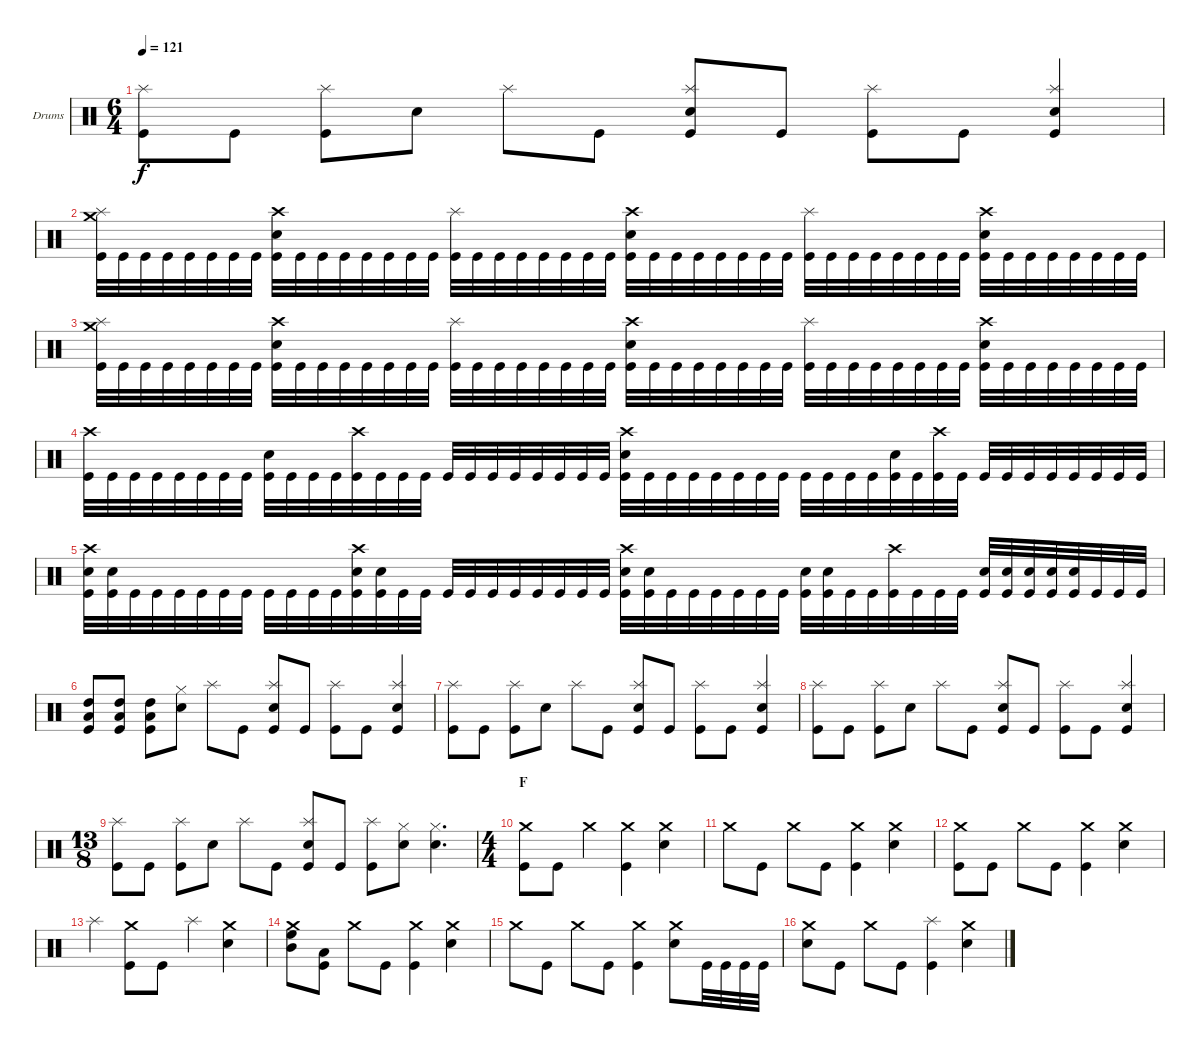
\bracketExtendMode groupsimilarinstruments
\firstSystemTrackNameOrientation horizontal
\otherSystemsTrackNameOrientation horizontal
\track ("Drumkit" "Drums") {instrument percussion}
\staff {score}
\articulation defaults
\ts (6 4)
\tempo 121
\clef neutral
\ks c
("Kick (hit)" "Splash (hit)").8{dy f} "Kick (hit)".8 ("Kick (hit)" "Splash (hit)").8 "Snare (hit) 2".8 "Splash (hit)".8 "Kick (hit)".8 ("Kick (hit)" "Snare (hit) 2" "Splash (hit)").8 "Kick (hit)".8 ("Splash (hit)" "Kick (hit)").8 "Kick (hit)".8 ("Kick (hit)" "Snare (hit) 2" "Splash (hit)").4 |
("Kick (hit)" "Splash (hit)" "Crash medium (hit)").32 "Kick (hit)".32 "Kick (hit)".32 "Kick (hit)".32 "Kick (hit)".32 "Kick (hit)".32 "Kick (hit)".32 "Kick (hit)".32 ("Kick (hit)" "Snare (hit) 2" "Crash high (hit)").32 "Kick (hit)".32 "Kick (hit)".32 "Kick (hit)".32 "Kick (hit)".32 "Kick (hit)".32 "Kick (hit)".32 "Kick (hit)".32 ("Kick (hit)" "Splash (hit)").32 "Kick (hit)".32 "Kick (hit)".32 "Kick (hit)".32 "Kick (hit)".32 "Kick (hit)".32 "Kick (hit)".32 "Kick (hit)".32 ("Kick (hit)" "Snare (hit) 2" "Crash high (hit)").32 "Kick (hit)".32 "Kick (hit)".32 "Kick (hit)".32 "Kick (hit)".32 "Kick (hit)".32 "Kick (hit)".32 "Kick (hit)".32 ("Kick (hit)" "Splash (hit)").32 "Kick (hit)".32 "Kick (hit)".32 "Kick (hit)".32 "Kick (hit)".32 "Kick (hit)".32 "Kick (hit)".32 "Kick (hit)".32 ("Kick (hit)" "Snare (hit) 2" "Crash high (hit)").32 "Kick (hit)".32 "Kick (hit)".32 "Kick (hit)".32 "Kick (hit)".32 "Kick (hit)".32 "Kick (hit)".32 "Kick (hit)".32 |
("Kick (hit)" "Splash (hit)" "Crash medium (hit)").32 "Kick (hit)".32 "Kick (hit)".32 "Kick (hit)".32 "Kick (hit)".32 "Kick (hit)".32 "Kick (hit)".32 "Kick (hit)".32 ("Kick (hit)" "Snare (hit) 2" "Crash high (hit)").32 "Kick (hit)".32 "Kick (hit)".32 "Kick (hit)".32 "Kick (hit)".32 "Kick (hit)".32 "Kick (hit)".32 "Kick (hit)".32 ("Kick (hit)" "Splash (hit)").32 "Kick (hit)".32 "Kick (hit)".32 "Kick (hit)".32 "Kick (hit)".32 "Kick (hit)".32 "Kick (hit)".32 "Kick (hit)".32 ("Kick (hit)" "Snare (hit) 2" "Crash high (hit)").32 "Kick (hit)".32 "Kick (hit)".32 "Kick (hit)".32 "Kick (hit)".32 "Kick (hit)".32 "Kick (hit)".32 "Kick (hit)".32 ("Kick (hit)" "Splash (hit)").32 "Kick (hit)".32 "Kick (hit)".32 "Kick (hit)".32 "Kick (hit)".32 "Kick (hit)".32 "Kick (hit)".32 "Kick (hit)".32 ("Kick (hit)" "Snare (hit) 2" "Crash high (hit)").32 "Kick (hit)".32 "Kick (hit)".32 "Kick (hit)".32 "Kick (hit)".32 "Kick (hit)".32 "Kick (hit)".32 "Kick (hit)".32 |
("Kick (hit)" "Crash high (hit)").32 "Kick (hit)".32 "Kick (hit)".32 "Kick (hit)".32 "Kick (hit)".32 "Kick (hit)".32 "Kick (hit)".32 "Kick (hit)".32 ("Kick (hit)" "Snare (hit) 2").32 "Kick (hit)".32 "Kick (hit)".32 "Kick (hit)".32 ("Kick (hit)" "Crash high (hit)").32 "Kick (hit)".32 "Kick (hit)".32 "Kick (hit)".32 "Kick (hit)".32 "Kick (hit)".32 "Kick (hit)".32 "Kick (hit)".32 "Kick (hit)".32 "Kick (hit)".32 "Kick (hit)".32 "Kick (hit)".32 ("Kick (hit)" "Crash high (hit)" "Snare (hit) 2").32 "Kick (hit)".32 "Kick (hit)".32 "Kick (hit)".32 "Kick (hit)".32 "Kick (hit)".32 "Kick (hit)".32 "Kick (hit)".32 "Kick (hit)".32 "Kick (hit)".32 "Kick (hit)".32 "Kick (hit)".32 ("Kick (hit)" "Snare (hit) 2").32 "Kick (hit)".32 ("Kick (hit)" "Crash high (hit)").32 "Kick (hit)".32 "Kick (hit)".32 "Kick (hit)".32 "Kick (hit)".32 "Kick (hit)".32 "Kick (hit)".32 "Kick (hit)".32 "Kick (hit)".32 "Kick (hit)".32 |
("Kick (hit)" "Crash high (hit)" "Snare (hit) 2").32 ("Kick (hit)" "Snare (hit) 2").32 "Kick (hit)".32 "Kick (hit)".32 "Kick (hit)".32 "Kick (hit)".32 "Kick (hit)".32 "Kick (hit)".32 "Kick (hit)".32 "Kick (hit)".32 "Kick (hit)".32 "Kick (hit)".32 ("Kick (hit)" "Crash high (hit)" "Snare (hit) 2").32 ("Kick (hit)" "Snare (hit) 2").32 "Kick (hit)".32 "Kick (hit)".32 "Kick (hit)".32 "Kick (hit)".32 "Kick (hit)".32 "Kick (hit)".32 "Kick (hit)".32 "Kick (hit)".32 "Kick (hit)".32 "Kick (hit)".32 ("Kick (hit)" "Crash high (hit)" "Snare (hit) 2").32 ("Kick (hit)" "Snare (hit) 2").32 "Kick (hit)".32 "Kick (hit)".32 "Kick (hit)".32 "Kick (hit)".32 "Kick (hit)".32 "Kick (hit)".32 ("Kick (hit)" "Snare (hit) 2").32 ("Kick (hit)" "Snare (hit) 2").32 "Kick (hit)".32 "Kick (hit)".32 ("Kick (hit)" "Crash high (hit)").32 "Kick (hit)".32 "Kick (hit)".32 "Kick (hit)".32 ("Kick (hit)" "Snare (hit) 2").32 ("Kick (hit)" "Snare (hit) 2").32 ("Kick (hit)" "Snare (hit) 2").32 ("Kick (hit)" "Snare (hit) 2").32 ("Kick (hit)" "Snare (hit) 2").32 "Kick (hit)".32 "Kick (hit)".32 "Kick (hit)".32 |
("Kick (hit)" "Low Tom (hit)" "High Tom (hit)").8 ("Kick (hit)" "Low Tom (hit)" "High Tom (hit)").8 ("Kick (hit)" "Low Tom (hit)" "High Tom (hit)").8 ("Snare (hit) 2" "Hi-Hat (closed)").8 "Splash (hit)".8 "Kick (hit)".8 ("Kick (hit)" "Snare (hit) 2" "Splash (hit)").8 "Kick (hit)".8 ("Splash (hit)" "Kick (hit)").8 "Kick (hit)".8 ("Kick (hit)" "Snare (hit) 2" "Splash (hit)").4 |
("Kick (hit)" "Splash (hit)").8 "Kick (hit)".8 ("Kick (hit)" "Splash (hit)").8 "Snare (hit) 2".8 "Splash (hit)".8 "Kick (hit)".8 ("Kick (hit)" "Snare (hit) 2" "Splash (hit)").8 "Kick (hit)".8 ("Splash (hit)" "Kick (hit)").8 "Kick (hit)".8 ("Kick (hit)" "Snare (hit) 2" "Splash (hit)").4 |
("Kick (hit)" "Splash (hit)").8 "Kick (hit)".8 ("Kick (hit)" "Splash (hit)").8 "Snare (hit) 2".8 "Splash (hit)".8 "Kick (hit)".8 ("Kick (hit)" "Snare (hit) 2" "Splash (hit)").8 "Kick (hit)".8 ("Splash (hit)" "Kick (hit)").8 "Kick (hit)".8 ("Kick (hit)" "Snare (hit) 2" "Splash (hit)").4 |
\ts (13 8)
("Kick (hit)" "Splash (hit)").8 "Kick (hit)".8 ("Kick (hit)" "Splash (hit)").8 "Snare (hit) 2".8 "Splash (hit)".8 "Kick (hit)".8 ("Kick (hit)" "Snare (hit) 2" "Splash (hit)").8 "Kick (hit)".8 ("Splash (hit)" "Kick (hit)").8 ("Snare (hit) 2" "Hi-Hat (closed)").8 ("Snare (hit) 2" "Hi-Hat (closed)").4{d} |
\ts (4 4)
\section ("" "F")
("Kick (hit)" "Crash medium (hit)").8 "Kick (hit)".8 "Crash medium (hit)".4 ("Crash medium (hit)" "Kick (hit)").4 ("Crash medium (hit)" "Snare (hit) 2").4 |
"Crash medium (hit)".8 "Kick (hit)".8 "Crash medium (hit)".8 "Kick (hit)".8 ("Crash medium (hit)" "Kick (hit)").4 ("Crash medium (hit)" "Snare (hit) 2").4 |
("Kick (hit)" "Crash medium (hit)").8 "Kick (hit)".8 "Crash medium (hit)".8 "Kick (hit)".8 ("Crash medium (hit)" "Kick (hit)").4 ("Crash medium (hit)" "Snare (hit) 2").4 |
"Splash (hit)".4 ("Kick (hit)" "Crash medium (hit)").8 "Kick (hit)".8 "Splash (hit)".4 ("Crash medium (hit)" "Snare (hit) 2").4 |
("Crash medium (hit)" "High Floor Tom (hit)" "Mid Tom (hit)").8 ("Kick (hit)" "Low Tom (hit)").8 "Crash medium (hit)".8 "Kick (hit)".8 ("Crash medium (hit)" "Kick (hit)").4 ("Crash medium (hit)" "Snare (hit) 2").4 |
"Crash medium (hit)".8 "Kick (hit)".8 "Crash medium (hit)".8 "Kick (hit)".8 ("Crash medium (hit)" "Kick (hit)").4 ("Crash medium (hit)" "Snare (hit) 2").8 "Kick (hit)".32 "Kick (hit)".32 "Kick (hit)".32 "Kick (hit)".32 |
("Crash medium (hit)" "Snare (hit) 2").8 "Kick (hit)".8 "Crash medium (hit)".8 "Kick (hit)".8 ("Kick (hit)" "Splash (hit)").4 ("Crash medium (hit)" "Snare (hit) 2").4
